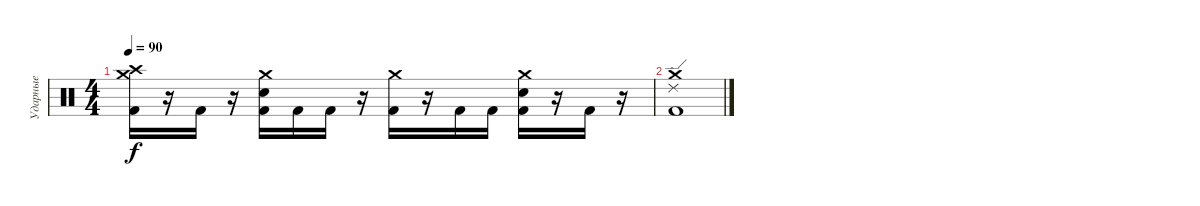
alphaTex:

\track ("Ударные" "Ударные") {instrument percussion}
\staff {score}
\articulation defaults
\ts (4 4)
\tempo 90
\clef neutral
\ks c
("Crash medium (hit)" "Crash high (hit)" "Kick (hit) 2").16{dy f} r.16 "Kick (hit) 2".16 r.16 ("Crash medium (hit)" "Electric Snare (hit)" "Kick (hit) 2").16 "Kick (hit) 2".16 "Kick (hit) 2".16 r.16 ("Crash medium (hit)" "Kick (hit) 2").16 r.16 "Kick (hit) 2".16 "Kick (hit) 2".16 ("Crash medium (hit)" "Electric Snare (hit)" "Kick (hit) 2").16 r.16 "Kick (hit) 2".16 r.16 |
("Crash medium (hit)" "Ride (edge) 2" "Kick (hit) 2").1
